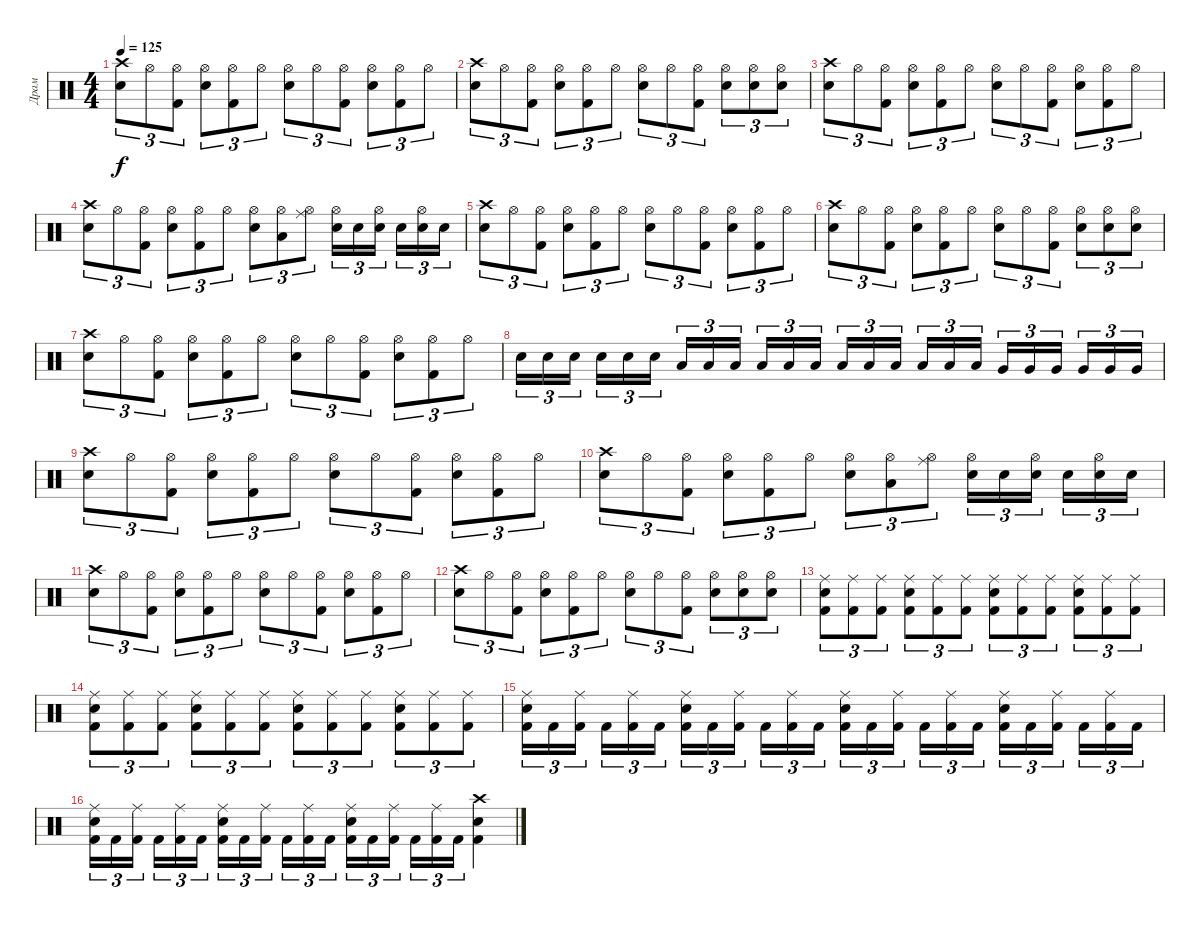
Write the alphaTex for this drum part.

\track ("Драм" "Драм") {instrument percussion}
\staff {score}
\articulation defaults
\ts (4 4)
\tempo 125
\clef neutral
\ks c
("Crash high (hit)" "Snare (hit) 2").8{tu (3 2) dy f} "Hi-Hat (open)".8{tu (3 2)} ("Hi-Hat (open)" "Kick (hit) 2").8{tu (3 2)} ("Hi-Hat (open)" "Snare (hit) 2").8{tu (3 2)} ("Hi-Hat (open)" "Kick (hit) 2").8{tu (3 2)} "Hi-Hat (open)".8{tu (3 2)} ("Hi-Hat (open)" "Snare (hit) 2").8{tu (3 2)} "Hi-Hat (open)".8{tu (3 2)} ("Hi-Hat (open)" "Kick (hit) 2").8{tu (3 2)} ("Hi-Hat (open)" "Snare (hit) 2").8{tu (3 2)} ("Hi-Hat (open)" "Kick (hit) 2").8{tu (3 2)} "Hi-Hat (open)".8{tu (3 2)} |
("Crash high (hit)" "Snare (hit) 2").8{tu (3 2)} "Hi-Hat (open)".8{tu (3 2)} ("Hi-Hat (open)" "Kick (hit) 2").8{tu (3 2)} ("Hi-Hat (open)" "Snare (hit) 2").8{tu (3 2)} ("Hi-Hat (open)" "Kick (hit) 2").8{tu (3 2)} "Hi-Hat (open)".8{tu (3 2)} ("Hi-Hat (open)" "Snare (hit) 2").8{tu (3 2)} "Hi-Hat (open)".8{tu (3 2)} ("Hi-Hat (open)" "Kick (hit) 2").8{tu (3 2)} ("Hi-Hat (open)" "Snare (hit) 2").8{tu (3 2)} ("Hi-Hat (open)" "Snare (hit) 2").8{tu (3 2)} ("Hi-Hat (open)" "Snare (hit) 2").8{tu (3 2)} |
("Crash high (hit)" "Snare (hit) 2").8{tu (3 2)} "Hi-Hat (open)".8{tu (3 2)} ("Hi-Hat (open)" "Kick (hit) 2").8{tu (3 2)} ("Hi-Hat (open)" "Snare (hit) 2").8{tu (3 2)} ("Hi-Hat (open)" "Kick (hit) 2").8{tu (3 2)} "Hi-Hat (open)".8{tu (3 2)} ("Hi-Hat (open)" "Snare (hit) 2").8{tu (3 2)} "Hi-Hat (open)".8{tu (3 2)} ("Hi-Hat (open)" "Kick (hit) 2").8{tu (3 2)} ("Hi-Hat (open)" "Snare (hit) 2").8{tu (3 2)} ("Hi-Hat (open)" "Kick (hit) 2").8{tu (3 2)} "Hi-Hat (open)".8{tu (3 2)} |
("Crash high (hit)" "Snare (hit) 2").8{tu (3 2)} "Hi-Hat (open)".8{tu (3 2)} ("Hi-Hat (open)" "Kick (hit) 2").8{tu (3 2)} ("Hi-Hat (open)" "Snare (hit) 2").8{tu (3 2)} ("Hi-Hat (open)" "Kick (hit) 2").8{tu (3 2)} "Hi-Hat (open)".8{tu (3 2)} ("Hi-Hat (open)" "Snare (hit) 2").8{tu (3 2)} ("Hi-Hat (open)" "Low Floor Tom (hit)").8{tu (3 2)} ("Hi-Hat (open)" "Ride (middle)").8{tu (3 2)} ("Hi-Hat (open)" "Snare (hit) 2").16{tu (3 2)} "Snare (hit) 2".16{tu (3 2)} ("Hi-Hat (open)" "Snare (hit) 2").16{tu (3 2) beam splitsecondary} "Snare (hit) 2".16{tu (3 2)} ("Hi-Hat (open)" "Snare (hit) 2").16{tu (3 2)} "Snare (hit) 2".16{tu (3 2)} |
("Crash high (hit)" "Snare (hit) 2").8{tu (3 2)} "Hi-Hat (open)".8{tu (3 2)} ("Hi-Hat (open)" "Kick (hit) 2").8{tu (3 2)} ("Hi-Hat (open)" "Snare (hit) 2").8{tu (3 2)} ("Hi-Hat (open)" "Kick (hit) 2").8{tu (3 2)} "Hi-Hat (open)".8{tu (3 2)} ("Hi-Hat (open)" "Snare (hit) 2").8{tu (3 2)} "Hi-Hat (open)".8{tu (3 2)} ("Hi-Hat (open)" "Kick (hit) 2").8{tu (3 2)} ("Hi-Hat (open)" "Snare (hit) 2").8{tu (3 2)} ("Hi-Hat (open)" "Kick (hit) 2").8{tu (3 2)} "Hi-Hat (open)".8{tu (3 2)} |
("Crash high (hit)" "Snare (hit) 2").8{tu (3 2)} "Hi-Hat (open)".8{tu (3 2)} ("Hi-Hat (open)" "Kick (hit) 2").8{tu (3 2)} ("Hi-Hat (open)" "Snare (hit) 2").8{tu (3 2)} ("Hi-Hat (open)" "Kick (hit) 2").8{tu (3 2)} "Hi-Hat (open)".8{tu (3 2)} ("Hi-Hat (open)" "Snare (hit) 2").8{tu (3 2)} "Hi-Hat (open)".8{tu (3 2)} ("Hi-Hat (open)" "Kick (hit) 2").8{tu (3 2)} ("Hi-Hat (open)" "Snare (hit) 2").8{tu (3 2)} ("Hi-Hat (open)" "Snare (hit) 2").8{tu (3 2)} ("Hi-Hat (open)" "Snare (hit) 2").8{tu (3 2)} |
("Crash high (hit)" "Snare (hit) 2").8{tu (3 2)} "Hi-Hat (open)".8{tu (3 2)} ("Hi-Hat (open)" "Kick (hit) 2").8{tu (3 2)} ("Hi-Hat (open)" "Snare (hit) 2").8{tu (3 2)} ("Hi-Hat (open)" "Kick (hit) 2").8{tu (3 2)} "Hi-Hat (open)".8{tu (3 2)} ("Hi-Hat (open)" "Snare (hit) 2").8{tu (3 2)} "Hi-Hat (open)".8{tu (3 2)} ("Hi-Hat (open)" "Kick (hit) 2").8{tu (3 2)} ("Hi-Hat (open)" "Snare (hit) 2").8{tu (3 2)} ("Hi-Hat (open)" "Kick (hit) 2").8{tu (3 2)} "Hi-Hat (open)".8{tu (3 2)} |
"Snare (hit) 2".16{tu (3 2)} "Snare (hit) 2".16{tu (3 2)} "Snare (hit) 2".16{tu (3 2) beam splitsecondary} "Snare (hit) 2".16{tu (3 2)} "Snare (hit) 2".16{tu (3 2)} "Snare (hit) 2".16{tu (3 2)} "Low Tom (hit)".16{tu (3 2)} "Low Tom (hit)".16{tu (3 2)} "Low Tom (hit)".16{tu (3 2) beam splitsecondary} "Low Tom (hit)".16{tu (3 2)} "Low Tom (hit)".16{tu (3 2)} "Low Tom (hit)".16{tu (3 2)} "Low Floor Tom (hit)".16{tu (3 2)} "Low Floor Tom (hit)".16{tu (3 2)} "Low Floor Tom (hit)".16{tu (3 2) beam splitsecondary} "Low Floor Tom (hit)".16{tu (3 2)} "Low Floor Tom (hit)".16{tu (3 2)} "Low Floor Tom (hit)".16{tu (3 2)} "Very Low Tom (hit)".16{tu (3 2)} "Very Low Tom (hit)".16{tu (3 2)} "Very Low Tom (hit)".16{tu (3 2) beam splitsecondary} "Very Low Tom (hit)".16{tu (3 2)} "Very Low Tom (hit)".16{tu (3 2)} "Very Low Tom (hit)".16{tu (3 2)} |
("Crash high (hit)" "Snare (hit) 2").8{tu (3 2)} "Hi-Hat (open)".8{tu (3 2)} ("Hi-Hat (open)" "Kick (hit) 2").8{tu (3 2)} ("Hi-Hat (open)" "Snare (hit) 2").8{tu (3 2)} ("Hi-Hat (open)" "Kick (hit) 2").8{tu (3 2)} "Hi-Hat (open)".8{tu (3 2)} ("Hi-Hat (open)" "Snare (hit) 2").8{tu (3 2)} "Hi-Hat (open)".8{tu (3 2)} ("Hi-Hat (open)" "Kick (hit) 2").8{tu (3 2)} ("Hi-Hat (open)" "Snare (hit) 2").8{tu (3 2)} ("Hi-Hat (open)" "Kick (hit) 2").8{tu (3 2)} "Hi-Hat (open)".8{tu (3 2)} |
("Crash high (hit)" "Snare (hit) 2").8{tu (3 2)} "Hi-Hat (open)".8{tu (3 2)} ("Hi-Hat (open)" "Kick (hit) 2").8{tu (3 2)} ("Hi-Hat (open)" "Snare (hit) 2").8{tu (3 2)} ("Hi-Hat (open)" "Kick (hit) 2").8{tu (3 2)} "Hi-Hat (open)".8{tu (3 2)} ("Hi-Hat (open)" "Snare (hit) 2").8{tu (3 2)} ("Hi-Hat (open)" "Low Floor Tom (hit)").8{tu (3 2)} ("Hi-Hat (open)" "Ride (middle)").8{tu (3 2)} ("Hi-Hat (open)" "Snare (hit) 2").16{tu (3 2)} "Snare (hit) 2".16{tu (3 2)} ("Hi-Hat (open)" "Snare (hit) 2").16{tu (3 2) beam splitsecondary} "Snare (hit) 2".16{tu (3 2)} ("Hi-Hat (open)" "Snare (hit) 2").16{tu (3 2)} "Snare (hit) 2".16{tu (3 2)} |
("Crash high (hit)" "Snare (hit) 2").8{tu (3 2)} "Hi-Hat (open)".8{tu (3 2)} ("Hi-Hat (open)" "Kick (hit) 2").8{tu (3 2)} ("Hi-Hat (open)" "Snare (hit) 2").8{tu (3 2)} ("Hi-Hat (open)" "Kick (hit) 2").8{tu (3 2)} "Hi-Hat (open)".8{tu (3 2)} ("Hi-Hat (open)" "Snare (hit) 2").8{tu (3 2)} "Hi-Hat (open)".8{tu (3 2)} ("Hi-Hat (open)" "Kick (hit) 2").8{tu (3 2)} ("Hi-Hat (open)" "Snare (hit) 2").8{tu (3 2)} ("Hi-Hat (open)" "Kick (hit) 2").8{tu (3 2)} "Hi-Hat (open)".8{tu (3 2)} |
("Crash high (hit)" "Snare (hit) 2").8{tu (3 2)} "Hi-Hat (open)".8{tu (3 2)} ("Hi-Hat (open)" "Kick (hit) 2").8{tu (3 2)} ("Hi-Hat (open)" "Snare (hit) 2").8{tu (3 2)} ("Hi-Hat (open)" "Kick (hit) 2").8{tu (3 2)} "Hi-Hat (open)".8{tu (3 2)} ("Hi-Hat (open)" "Snare (hit) 2").8{tu (3 2)} "Hi-Hat (open)".8{tu (3 2)} ("Hi-Hat (open)" "Kick (hit) 2").8{tu (3 2)} ("Hi-Hat (open)" "Snare (hit) 2").8{tu (3 2)} ("Hi-Hat (open)" "Snare (hit) 2").8{tu (3 2)} ("Hi-Hat (open)" "Snare (hit) 2").8{tu (3 2)} |
("Ride (middle)" "Snare (hit) 2" "Kick (hit) 2").8{tu (3 2)} ("Ride (middle)" "Kick (hit) 2").8{tu (3 2)} ("Ride (middle)" "Kick (hit) 2").8{tu (3 2)} ("Ride (middle)" "Snare (hit) 2" "Kick (hit) 2").8{tu (3 2)} ("Ride (middle)" "Kick (hit) 2").8{tu (3 2)} ("Ride (middle)" "Kick (hit) 2").8{tu (3 2)} ("Ride (middle)" "Snare (hit) 2" "Kick (hit) 2").8{tu (3 2)} ("Ride (middle)" "Kick (hit) 2").8{tu (3 2)} ("Ride (middle)" "Kick (hit) 2").8{tu (3 2)} ("Ride (middle)" "Snare (hit) 2" "Kick (hit) 2").8{tu (3 2)} ("Ride (middle)" "Kick (hit) 2").8{tu (3 2)} ("Ride (middle)" "Kick (hit) 2").8{tu (3 2)} |
("Ride (middle)" "Snare (hit) 2" "Kick (hit) 2").8{tu (3 2)} ("Ride (middle)" "Kick (hit) 2").8{tu (3 2)} ("Ride (middle)" "Kick (hit) 2").8{tu (3 2)} ("Ride (middle)" "Snare (hit) 2" "Kick (hit) 2").8{tu (3 2)} ("Ride (middle)" "Kick (hit) 2").8{tu (3 2)} ("Ride (middle)" "Kick (hit) 2").8{tu (3 2)} ("Ride (middle)" "Snare (hit) 2" "Kick (hit) 2").8{tu (3 2)} ("Ride (middle)" "Kick (hit) 2").8{tu (3 2)} ("Ride (middle)" "Kick (hit) 2").8{tu (3 2)} ("Ride (middle)" "Snare (hit) 2" "Kick (hit) 2").8{tu (3 2)} ("Ride (middle)" "Kick (hit) 2").8{tu (3 2)} ("Ride (middle)" "Kick (hit) 2").8{tu (3 2)} |
("Ride (middle)" "Snare (hit) 2" "Kick (hit) 2").16{tu (3 2)} "Kick (hit) 2".16{tu (3 2)} ("Ride (middle)" "Kick (hit) 2").16{tu (3 2) beam splitsecondary} "Kick (hit) 2".16{tu (3 2)} ("Ride (middle)" "Kick (hit) 2").16{tu (3 2)} "Kick (hit) 2".16{tu (3 2)} ("Ride (middle)" "Snare (hit) 2" "Kick (hit) 2").16{tu (3 2)} "Kick (hit) 2".16{tu (3 2)} ("Ride (middle)" "Kick (hit) 2").16{tu (3 2) beam splitsecondary} "Kick (hit) 2".16{tu (3 2)} ("Ride (middle)" "Kick (hit) 2").16{tu (3 2)} "Kick (hit) 2".16{tu (3 2)} ("Ride (middle)" "Snare (hit) 2" "Kick (hit) 2").16{tu (3 2)} "Kick (hit) 2".16{tu (3 2)} ("Ride (middle)" "Kick (hit) 2").16{tu (3 2) beam splitsecondary} "Kick (hit) 2".16{tu (3 2)} ("Ride (middle)" "Kick (hit) 2").16{tu (3 2)} "Kick (hit) 2".16{tu (3 2)} ("Ride (middle)" "Snare (hit) 2" "Kick (hit) 2").16{tu (3 2)} "Kick (hit) 2".16{tu (3 2)} ("Ride (middle)" "Kick (hit) 2").16{tu (3 2) beam splitsecondary} "Kick (hit) 2".16{tu (3 2)} ("Ride (middle)" "Kick (hit) 2").16{tu (3 2)} "Kick (hit) 2".16{tu (3 2)} |
("Ride (middle)" "Snare (hit) 2" "Kick (hit) 2").16{tu (3 2)} "Kick (hit) 2".16{tu (3 2)} ("Ride (middle)" "Kick (hit) 2").16{tu (3 2) beam splitsecondary} "Kick (hit) 2".16{tu (3 2)} ("Ride (middle)" "Kick (hit) 2").16{tu (3 2)} "Kick (hit) 2".16{tu (3 2)} ("Ride (middle)" "Snare (hit) 2" "Kick (hit) 2").16{tu (3 2)} "Kick (hit) 2".16{tu (3 2)} ("Ride (middle)" "Kick (hit) 2").16{tu (3 2) beam splitsecondary} "Kick (hit) 2".16{tu (3 2)} ("Ride (middle)" "Kick (hit) 2").16{tu (3 2)} "Kick (hit) 2".16{tu (3 2)} ("Ride (middle)" "Snare (hit) 2" "Kick (hit) 2").16{tu (3 2)} "Kick (hit) 2".16{tu (3 2)} ("Ride (middle)" "Kick (hit) 2").16{tu (3 2) beam splitsecondary} "Kick (hit) 2".16{tu (3 2)} ("Ride (middle)" "Kick (hit) 2").16{tu (3 2)} "Kick (hit) 2".16{tu (3 2)} ("Crash high (hit)" "Snare (hit) 2" "Kick (hit) 2").4
